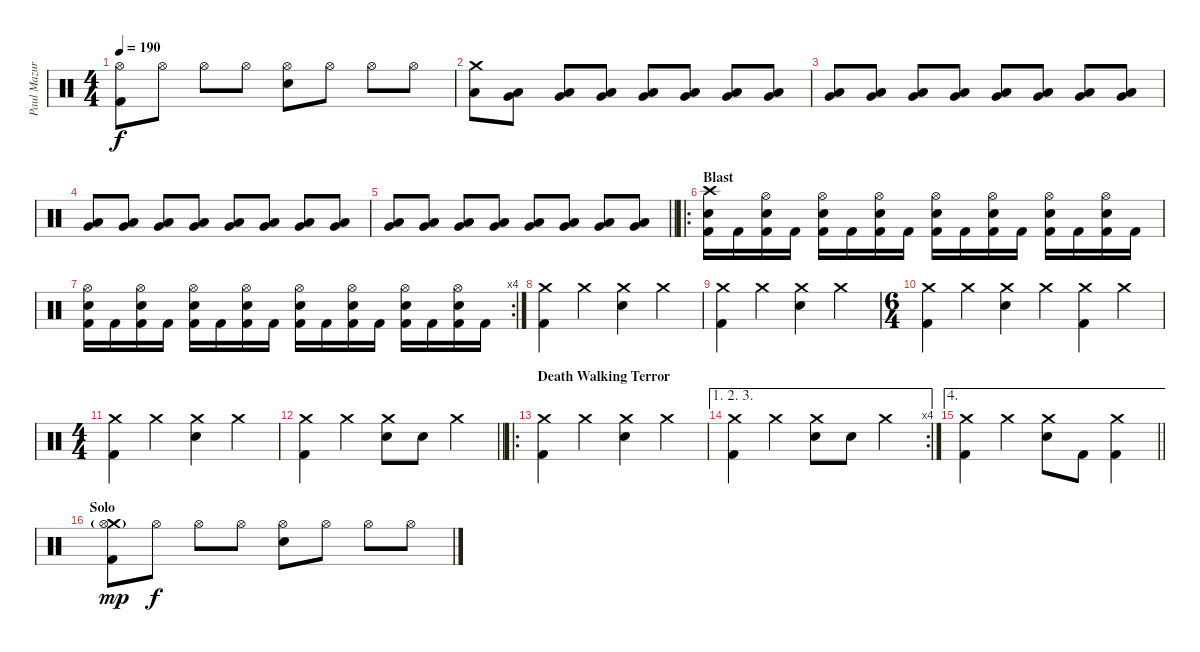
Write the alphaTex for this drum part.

\track ("Paul Mazurkiewicz" "Paul Mazur") {instrument percussion}
\staff {score}
\articulation defaults
\ts (4 4)
\tempo 190
\clef neutral
\ks c
("Hi-Hat (open)" "Kick (hit) 2").8{dy f} "Hi-Hat (open)".8 "Hi-Hat (open)".8 "Hi-Hat (open)".8 ("Hi-Hat (open)" "Electric Snare (hit)").8 "Hi-Hat (open)".8 "Hi-Hat (open)".8 "Hi-Hat (open)".8 |
("Crash medium (hit)" "Low Floor Tom (hit)").8 ("Very Low Tom (hit)" "Low Floor Tom (hit)").8 ("Very Low Tom (hit)" "Low Floor Tom (hit)").8 ("Very Low Tom (hit)" "Low Floor Tom (hit)").8 ("Very Low Tom (hit)" "Low Floor Tom (hit)").8 ("Very Low Tom (hit)" "Low Floor Tom (hit)").8 ("Very Low Tom (hit)" "Low Floor Tom (hit)").8 ("Very Low Tom (hit)" "Low Floor Tom (hit)").8 |
("Very Low Tom (hit)" "Low Floor Tom (hit)").8 ("Very Low Tom (hit)" "Low Floor Tom (hit)").8 ("Very Low Tom (hit)" "Low Floor Tom (hit)").8 ("Very Low Tom (hit)" "Low Floor Tom (hit)").8 ("Very Low Tom (hit)" "Low Floor Tom (hit)").8 ("Very Low Tom (hit)" "Low Floor Tom (hit)").8 ("Very Low Tom (hit)" "Low Floor Tom (hit)").8 ("Very Low Tom (hit)" "Low Floor Tom (hit)").8 |
("Very Low Tom (hit)" "Low Floor Tom (hit)").8 ("Very Low Tom (hit)" "Low Floor Tom (hit)").8 ("Very Low Tom (hit)" "Low Floor Tom (hit)").8 ("Very Low Tom (hit)" "Low Floor Tom (hit)").8 ("Very Low Tom (hit)" "Low Floor Tom (hit)").8 ("Very Low Tom (hit)" "Low Floor Tom (hit)").8 ("Very Low Tom (hit)" "Low Floor Tom (hit)").8 ("Very Low Tom (hit)" "Low Floor Tom (hit)").8 |
\barLineRight lightlight
("Very Low Tom (hit)" "Low Floor Tom (hit)").8 ("Very Low Tom (hit)" "Low Floor Tom (hit)").8 ("Very Low Tom (hit)" "Low Floor Tom (hit)").8 ("Very Low Tom (hit)" "Low Floor Tom (hit)").8 ("Very Low Tom (hit)" "Low Floor Tom (hit)").8 ("Very Low Tom (hit)" "Low Floor Tom (hit)").8 ("Very Low Tom (hit)" "Low Floor Tom (hit)").8 ("Very Low Tom (hit)" "Low Floor Tom (hit)").8 |
\ro
\section ("" "Blast")
("Crash high (hit)" "Electric Snare (hit)" "Kick (hit) 2").16 "Kick (hit) 2".16 ("Hi-Hat (open)" "Electric Snare (hit)" "Kick (hit) 2").16 "Kick (hit) 2".16 ("Hi-Hat (open)" "Electric Snare (hit)" "Kick (hit) 2").16 "Kick (hit) 2".16 ("Hi-Hat (open)" "Electric Snare (hit)" "Kick (hit) 2").16 "Kick (hit) 2".16 ("Hi-Hat (open)" "Electric Snare (hit)" "Kick (hit) 2").16 "Kick (hit) 2".16 ("Hi-Hat (open)" "Electric Snare (hit)" "Kick (hit) 2").16 "Kick (hit) 2".16 ("Hi-Hat (open)" "Electric Snare (hit)" "Kick (hit) 2").16 "Kick (hit) 2".16 ("Hi-Hat (open)" "Electric Snare (hit)" "Kick (hit) 2").16 "Kick (hit) 2".16 |
\rc 4
("Hi-Hat (open)" "Electric Snare (hit)" "Kick (hit) 2").16 "Kick (hit) 2".16 ("Hi-Hat (open)" "Electric Snare (hit)" "Kick (hit) 2").16 "Kick (hit) 2".16 ("Hi-Hat (open)" "Electric Snare (hit)" "Kick (hit) 2").16 "Kick (hit) 2".16 ("Hi-Hat (open)" "Electric Snare (hit)" "Kick (hit) 2").16 "Kick (hit) 2".16 ("Hi-Hat (open)" "Electric Snare (hit)" "Kick (hit) 2").16 "Kick (hit) 2".16 ("Hi-Hat (open)" "Electric Snare (hit)" "Kick (hit) 2").16 "Kick (hit) 2".16 ("Hi-Hat (open)" "Electric Snare (hit)" "Kick (hit) 2").16 "Kick (hit) 2".16 ("Hi-Hat (open)" "Electric Snare (hit)" "Kick (hit) 2").16 "Kick (hit) 2".16 |
("Crash medium (hit)" "Kick (hit) 2").4 "Crash medium (hit)".4 ("Crash medium (hit)" "Electric Snare (hit)").4 "Crash medium (hit)".4 |
("Crash medium (hit)" "Kick (hit) 2").4 "Crash medium (hit)".4 ("Crash medium (hit)" "Electric Snare (hit)").4 "Crash medium (hit)".4 |
\ts (6 4)
("Crash medium (hit)" "Kick (hit) 2").4 "Crash medium (hit)".4 ("Crash medium (hit)" "Electric Snare (hit)").4 "Crash medium (hit)".4 ("Crash medium (hit)" "Kick (hit) 2").4 "Crash medium (hit)".4 |
\ts (4 4)
("Crash medium (hit)" "Kick (hit) 2").4 "Crash medium (hit)".4 ("Crash medium (hit)" "Electric Snare (hit)").4 "Crash medium (hit)".4 |
\barLineRight lightlight
("Crash medium (hit)" "Kick (hit) 2").4 "Crash medium (hit)".4 ("Crash medium (hit)" "Electric Snare (hit)").8 "Electric Snare (hit)".8 "Crash medium (hit)".4 |
\ro
\section ("" "Death Walking Terror")
("Crash medium (hit)" "Kick (hit) 2").4 "Crash medium (hit)".4 ("Crash medium (hit)" "Electric Snare (hit)").4 "Crash medium (hit)".4 |
\ae (1 2 3)
\rc 4
("Crash medium (hit)" "Kick (hit) 2").4 "Crash medium (hit)".4 ("Crash medium (hit)" "Electric Snare (hit)").8 "Electric Snare (hit)".8 "Crash medium (hit)".4 |
\ae 4
\barLineRight lightlight
("Crash medium (hit)" "Kick (hit) 2").4 "Crash medium (hit)".4 ("Crash medium (hit)" "Electric Snare (hit)").8 "Kick (hit) 2".8 ("Crash medium (hit)" "Kick (hit) 2").4 |
\section ("" "Solo")
("Crash medium (hit)"{g} "Hi-Hat (open)" "Kick (hit) 2").8{dy mp} "Hi-Hat (open)".8{dy f} "Hi-Hat (open)".8 "Hi-Hat (open)".8 ("Hi-Hat (open)" "Electric Snare (hit)").8 "Hi-Hat (open)".8 "Hi-Hat (open)".8 "Hi-Hat (open)".8
